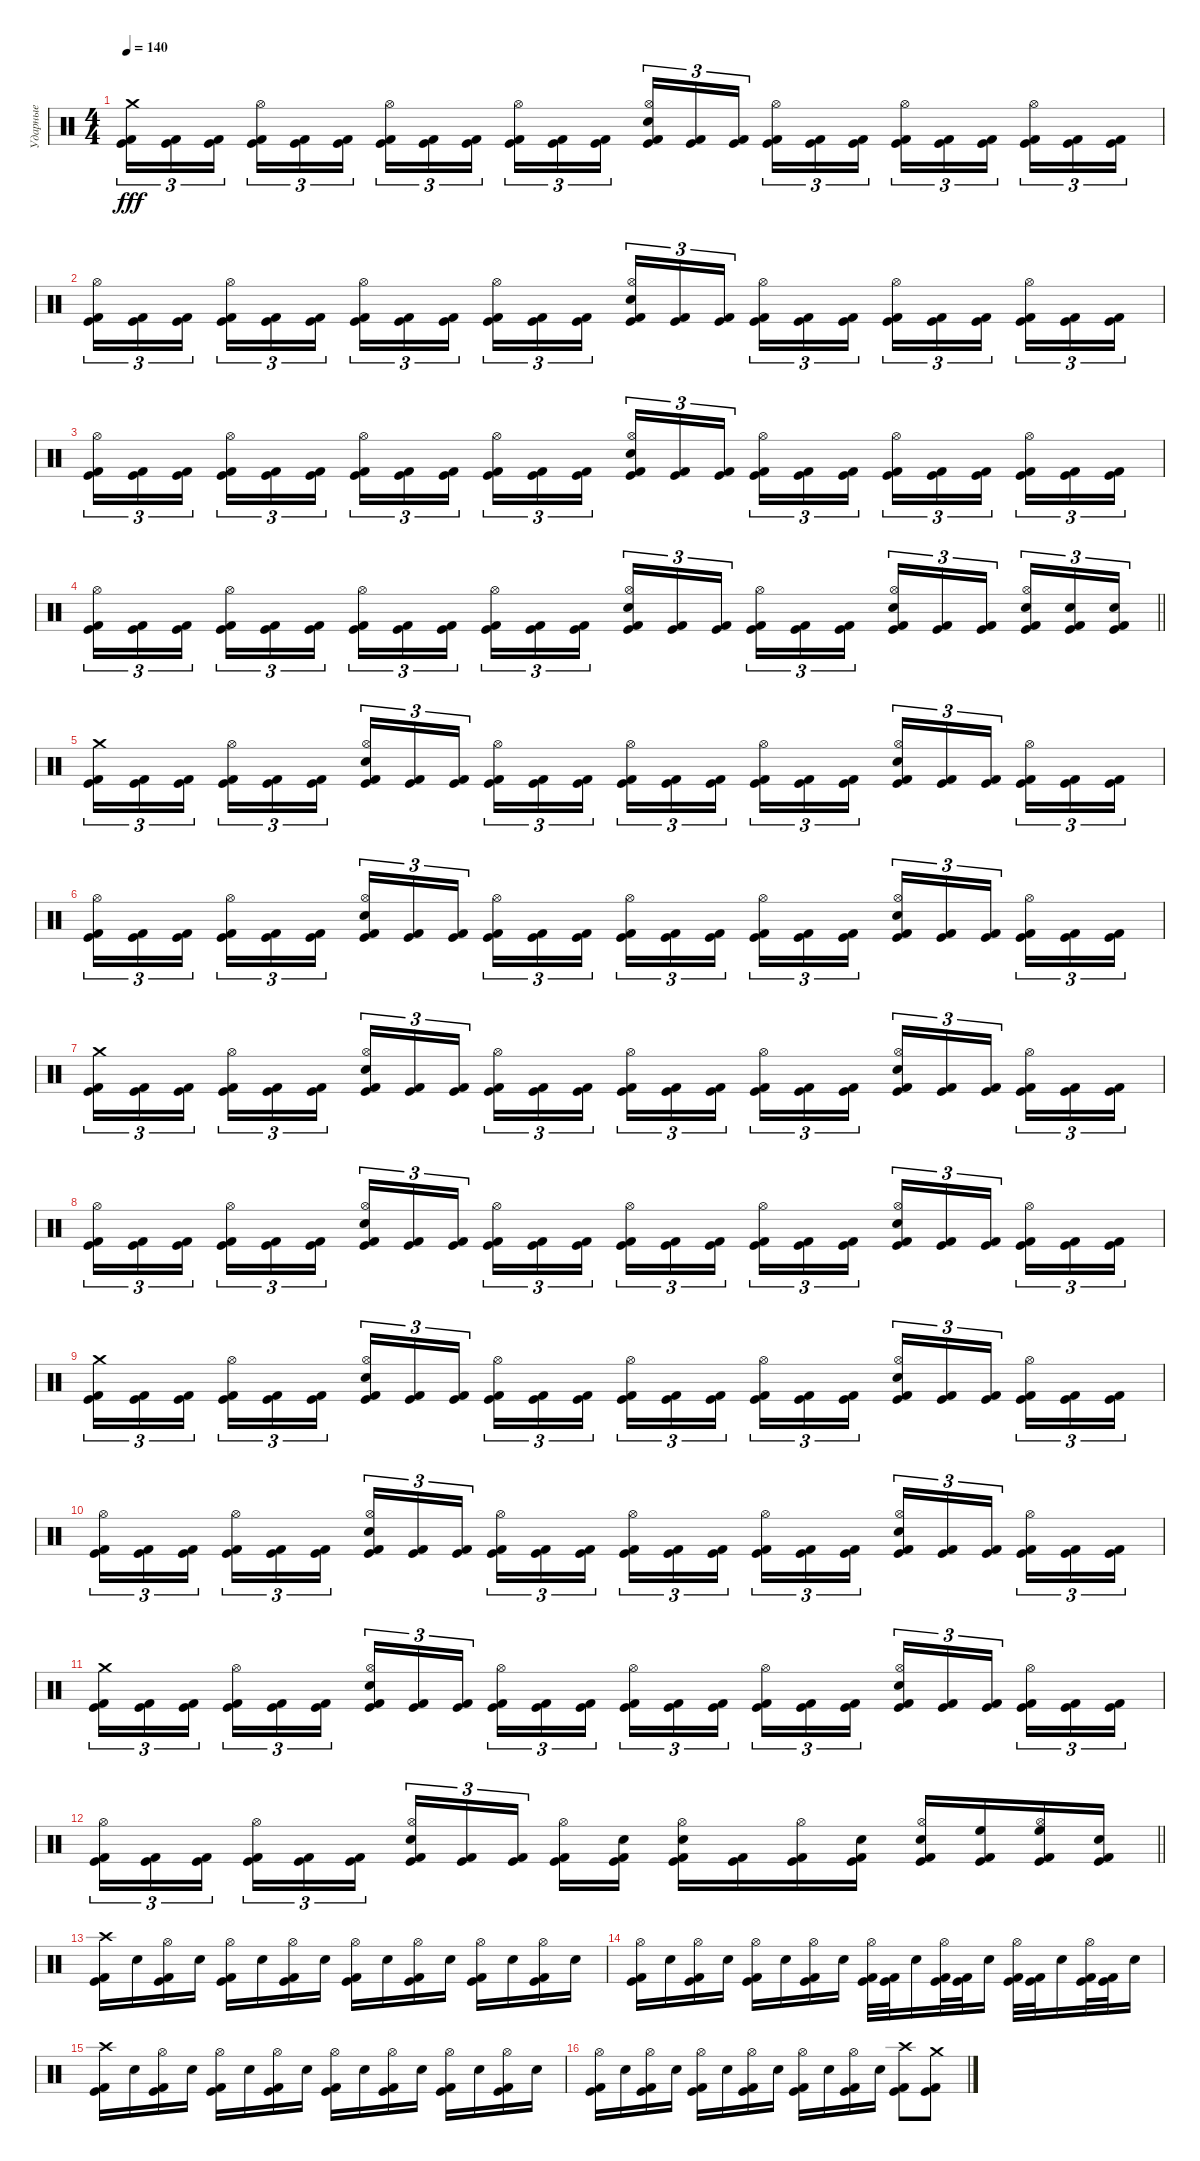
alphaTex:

\track ("Ударные" "Ударные") {instrument percussion}
\staff {score}
\articulation defaults
\ts (4 4)
\tempo 140
\clef neutral
\ks c
("Kick (hit)" "Kick (hit) 2" "Crash medium (hit)").16{tu (3 2) dy fff} ("Kick (hit)" "Kick (hit) 2").16{tu (3 2)} ("Kick (hit)" "Kick (hit) 2").16{tu (3 2) beam splitsecondary} ("Hi-Hat (open)" "Kick (hit)" "Kick (hit) 2").16{tu (3 2)} ("Kick (hit)" "Kick (hit) 2").16{tu (3 2)} ("Kick (hit)" "Kick (hit) 2").16{tu (3 2)} ("Hi-Hat (open)" "Kick (hit)" "Kick (hit) 2").16{tu (3 2)} ("Kick (hit)" "Kick (hit) 2").16{tu (3 2)} ("Kick (hit)" "Kick (hit) 2").16{tu (3 2) beam splitsecondary} ("Hi-Hat (open)" "Kick (hit)" "Kick (hit) 2").16{tu (3 2)} ("Kick (hit)" "Kick (hit) 2").16{tu (3 2)} ("Kick (hit)" "Kick (hit) 2").16{tu (3 2)} ("Hi-Hat (open)" "Kick (hit)" "Kick (hit) 2" "Electric Snare (hit)").16{tu (3 2)} ("Kick (hit)" "Kick (hit) 2").16{tu (3 2)} ("Kick (hit)" "Kick (hit) 2").16{tu (3 2) beam splitsecondary} ("Hi-Hat (open)" "Kick (hit)" "Kick (hit) 2").16{tu (3 2)} ("Kick (hit)" "Kick (hit) 2").16{tu (3 2)} ("Kick (hit)" "Kick (hit) 2").16{tu (3 2)} ("Hi-Hat (open)" "Kick (hit)" "Kick (hit) 2").16{tu (3 2)} ("Kick (hit)" "Kick (hit) 2").16{tu (3 2)} ("Kick (hit)" "Kick (hit) 2").16{tu (3 2) beam splitsecondary} ("Hi-Hat (open)" "Kick (hit)" "Kick (hit) 2").16{tu (3 2)} ("Kick (hit)" "Kick (hit) 2").16{tu (3 2)} ("Kick (hit)" "Kick (hit) 2").16{tu (3 2)} |
("Hi-Hat (open)" "Kick (hit)" "Kick (hit) 2").16{tu (3 2)} ("Kick (hit)" "Kick (hit) 2").16{tu (3 2)} ("Kick (hit)" "Kick (hit) 2").16{tu (3 2) beam splitsecondary} ("Hi-Hat (open)" "Kick (hit)" "Kick (hit) 2").16{tu (3 2)} ("Kick (hit)" "Kick (hit) 2").16{tu (3 2)} ("Kick (hit)" "Kick (hit) 2").16{tu (3 2)} ("Hi-Hat (open)" "Kick (hit)" "Kick (hit) 2").16{tu (3 2)} ("Kick (hit)" "Kick (hit) 2").16{tu (3 2)} ("Kick (hit)" "Kick (hit) 2").16{tu (3 2) beam splitsecondary} ("Hi-Hat (open)" "Kick (hit)" "Kick (hit) 2").16{tu (3 2)} ("Kick (hit)" "Kick (hit) 2").16{tu (3 2)} ("Kick (hit)" "Kick (hit) 2").16{tu (3 2)} ("Hi-Hat (open)" "Kick (hit)" "Kick (hit) 2" "Electric Snare (hit)").16{tu (3 2)} ("Kick (hit)" "Kick (hit) 2").16{tu (3 2)} ("Kick (hit)" "Kick (hit) 2").16{tu (3 2) beam splitsecondary} ("Hi-Hat (open)" "Kick (hit)" "Kick (hit) 2").16{tu (3 2)} ("Kick (hit)" "Kick (hit) 2").16{tu (3 2)} ("Kick (hit)" "Kick (hit) 2").16{tu (3 2)} ("Hi-Hat (open)" "Kick (hit)" "Kick (hit) 2").16{tu (3 2)} ("Kick (hit)" "Kick (hit) 2").16{tu (3 2)} ("Kick (hit)" "Kick (hit) 2").16{tu (3 2) beam splitsecondary} ("Hi-Hat (open)" "Kick (hit)" "Kick (hit) 2").16{tu (3 2)} ("Kick (hit)" "Kick (hit) 2").16{tu (3 2)} ("Kick (hit)" "Kick (hit) 2").16{tu (3 2)} |
("Hi-Hat (open)" "Kick (hit)" "Kick (hit) 2").16{tu (3 2)} ("Kick (hit)" "Kick (hit) 2").16{tu (3 2)} ("Kick (hit)" "Kick (hit) 2").16{tu (3 2) beam splitsecondary} ("Hi-Hat (open)" "Kick (hit)" "Kick (hit) 2").16{tu (3 2)} ("Kick (hit)" "Kick (hit) 2").16{tu (3 2)} ("Kick (hit)" "Kick (hit) 2").16{tu (3 2)} ("Hi-Hat (open)" "Kick (hit)" "Kick (hit) 2").16{tu (3 2)} ("Kick (hit)" "Kick (hit) 2").16{tu (3 2)} ("Kick (hit)" "Kick (hit) 2").16{tu (3 2) beam splitsecondary} ("Hi-Hat (open)" "Kick (hit)" "Kick (hit) 2").16{tu (3 2)} ("Kick (hit)" "Kick (hit) 2").16{tu (3 2)} ("Kick (hit)" "Kick (hit) 2").16{tu (3 2)} ("Hi-Hat (open)" "Kick (hit)" "Kick (hit) 2" "Electric Snare (hit)").16{tu (3 2)} ("Kick (hit)" "Kick (hit) 2").16{tu (3 2)} ("Kick (hit)" "Kick (hit) 2").16{tu (3 2) beam splitsecondary} ("Hi-Hat (open)" "Kick (hit)" "Kick (hit) 2").16{tu (3 2)} ("Kick (hit)" "Kick (hit) 2").16{tu (3 2)} ("Kick (hit)" "Kick (hit) 2").16{tu (3 2)} ("Hi-Hat (open)" "Kick (hit)" "Kick (hit) 2").16{tu (3 2)} ("Kick (hit)" "Kick (hit) 2").16{tu (3 2)} ("Kick (hit)" "Kick (hit) 2").16{tu (3 2) beam splitsecondary} ("Hi-Hat (open)" "Kick (hit)" "Kick (hit) 2").16{tu (3 2)} ("Kick (hit)" "Kick (hit) 2").16{tu (3 2)} ("Kick (hit)" "Kick (hit) 2").16{tu (3 2)} |
\barLineRight lightlight
("Hi-Hat (open)" "Kick (hit)" "Kick (hit) 2").16{tu (3 2)} ("Kick (hit)" "Kick (hit) 2").16{tu (3 2)} ("Kick (hit)" "Kick (hit) 2").16{tu (3 2) beam splitsecondary} ("Hi-Hat (open)" "Kick (hit)" "Kick (hit) 2").16{tu (3 2)} ("Kick (hit)" "Kick (hit) 2").16{tu (3 2)} ("Kick (hit)" "Kick (hit) 2").16{tu (3 2)} ("Hi-Hat (open)" "Kick (hit)" "Kick (hit) 2").16{tu (3 2)} ("Kick (hit)" "Kick (hit) 2").16{tu (3 2)} ("Kick (hit)" "Kick (hit) 2").16{tu (3 2) beam splitsecondary} ("Hi-Hat (open)" "Kick (hit)" "Kick (hit) 2").16{tu (3 2)} ("Kick (hit)" "Kick (hit) 2").16{tu (3 2)} ("Kick (hit)" "Kick (hit) 2").16{tu (3 2)} ("Hi-Hat (open)" "Kick (hit)" "Kick (hit) 2" "Electric Snare (hit)").16{tu (3 2)} ("Kick (hit)" "Kick (hit) 2").16{tu (3 2)} ("Kick (hit)" "Kick (hit) 2").16{tu (3 2) beam splitsecondary} ("Hi-Hat (open)" "Kick (hit)" "Kick (hit) 2").16{tu (3 2)} ("Kick (hit)" "Kick (hit) 2").16{tu (3 2)} ("Kick (hit)" "Kick (hit) 2").16{tu (3 2)} ("Hi-Hat (open)" "Kick (hit)" "Kick (hit) 2" "Electric Snare (hit)").16{tu (3 2)} ("Kick (hit)" "Kick (hit) 2").16{tu (3 2)} ("Kick (hit)" "Kick (hit) 2").16{tu (3 2) beam splitsecondary} ("Hi-Hat (open)" "Kick (hit)" "Kick (hit) 2" "Electric Snare (hit)").16{tu (3 2)} ("Kick (hit)" "Kick (hit) 2" "Electric Snare (hit)").16{tu (3 2)} ("Kick (hit)" "Kick (hit) 2" "Electric Snare (hit)").16{tu (3 2)} |
("Kick (hit)" "Kick (hit) 2" "Crash medium (hit)").16{tu (3 2)} ("Kick (hit)" "Kick (hit) 2").16{tu (3 2)} ("Kick (hit)" "Kick (hit) 2").16{tu (3 2) beam splitsecondary} ("Hi-Hat (open)" "Kick (hit)" "Kick (hit) 2").16{tu (3 2)} ("Kick (hit)" "Kick (hit) 2").16{tu (3 2)} ("Kick (hit)" "Kick (hit) 2").16{tu (3 2)} ("Hi-Hat (open)" "Kick (hit)" "Kick (hit) 2" "Electric Snare (hit)").16{tu (3 2)} ("Kick (hit)" "Kick (hit) 2").16{tu (3 2)} ("Kick (hit)" "Kick (hit) 2").16{tu (3 2) beam splitsecondary} ("Hi-Hat (open)" "Kick (hit)" "Kick (hit) 2").16{tu (3 2)} ("Kick (hit)" "Kick (hit) 2").16{tu (3 2)} ("Kick (hit)" "Kick (hit) 2").16{tu (3 2)} ("Hi-Hat (open)" "Kick (hit)" "Kick (hit) 2").16{tu (3 2)} ("Kick (hit)" "Kick (hit) 2").16{tu (3 2)} ("Kick (hit)" "Kick (hit) 2").16{tu (3 2) beam splitsecondary} ("Hi-Hat (open)" "Kick (hit)" "Kick (hit) 2").16{tu (3 2)} ("Kick (hit)" "Kick (hit) 2").16{tu (3 2)} ("Kick (hit)" "Kick (hit) 2").16{tu (3 2)} ("Hi-Hat (open)" "Kick (hit)" "Kick (hit) 2" "Electric Snare (hit)").16{tu (3 2)} ("Kick (hit)" "Kick (hit) 2").16{tu (3 2)} ("Kick (hit)" "Kick (hit) 2").16{tu (3 2) beam splitsecondary} ("Hi-Hat (open)" "Kick (hit)" "Kick (hit) 2").16{tu (3 2)} ("Kick (hit)" "Kick (hit) 2").16{tu (3 2)} ("Kick (hit)" "Kick (hit) 2").16{tu (3 2)} |
("Hi-Hat (open)" "Kick (hit)" "Kick (hit) 2").16{tu (3 2)} ("Kick (hit)" "Kick (hit) 2").16{tu (3 2)} ("Kick (hit)" "Kick (hit) 2").16{tu (3 2) beam splitsecondary} ("Hi-Hat (open)" "Kick (hit)" "Kick (hit) 2").16{tu (3 2)} ("Kick (hit)" "Kick (hit) 2").16{tu (3 2)} ("Kick (hit)" "Kick (hit) 2").16{tu (3 2)} ("Hi-Hat (open)" "Kick (hit)" "Kick (hit) 2" "Electric Snare (hit)").16{tu (3 2)} ("Kick (hit)" "Kick (hit) 2").16{tu (3 2)} ("Kick (hit)" "Kick (hit) 2").16{tu (3 2) beam splitsecondary} ("Hi-Hat (open)" "Kick (hit)" "Kick (hit) 2").16{tu (3 2)} ("Kick (hit)" "Kick (hit) 2").16{tu (3 2)} ("Kick (hit)" "Kick (hit) 2").16{tu (3 2)} ("Hi-Hat (open)" "Kick (hit)" "Kick (hit) 2").16{tu (3 2)} ("Kick (hit)" "Kick (hit) 2").16{tu (3 2)} ("Kick (hit)" "Kick (hit) 2").16{tu (3 2) beam splitsecondary} ("Hi-Hat (open)" "Kick (hit)" "Kick (hit) 2").16{tu (3 2)} ("Kick (hit)" "Kick (hit) 2").16{tu (3 2)} ("Kick (hit)" "Kick (hit) 2").16{tu (3 2)} ("Hi-Hat (open)" "Kick (hit)" "Kick (hit) 2" "Electric Snare (hit)").16{tu (3 2)} ("Kick (hit)" "Kick (hit) 2").16{tu (3 2)} ("Kick (hit)" "Kick (hit) 2").16{tu (3 2) beam splitsecondary} ("Hi-Hat (open)" "Kick (hit)" "Kick (hit) 2").16{tu (3 2)} ("Kick (hit)" "Kick (hit) 2").16{tu (3 2)} ("Kick (hit)" "Kick (hit) 2").16{tu (3 2)} |
("Kick (hit)" "Kick (hit) 2" "Crash medium (hit)").16{tu (3 2)} ("Kick (hit)" "Kick (hit) 2").16{tu (3 2)} ("Kick (hit)" "Kick (hit) 2").16{tu (3 2) beam splitsecondary} ("Hi-Hat (open)" "Kick (hit)" "Kick (hit) 2").16{tu (3 2)} ("Kick (hit)" "Kick (hit) 2").16{tu (3 2)} ("Kick (hit)" "Kick (hit) 2").16{tu (3 2)} ("Hi-Hat (open)" "Kick (hit)" "Kick (hit) 2" "Electric Snare (hit)").16{tu (3 2)} ("Kick (hit)" "Kick (hit) 2").16{tu (3 2)} ("Kick (hit)" "Kick (hit) 2").16{tu (3 2) beam splitsecondary} ("Hi-Hat (open)" "Kick (hit)" "Kick (hit) 2").16{tu (3 2)} ("Kick (hit)" "Kick (hit) 2").16{tu (3 2)} ("Kick (hit)" "Kick (hit) 2").16{tu (3 2)} ("Hi-Hat (open)" "Kick (hit)" "Kick (hit) 2").16{tu (3 2)} ("Kick (hit)" "Kick (hit) 2").16{tu (3 2)} ("Kick (hit)" "Kick (hit) 2").16{tu (3 2) beam splitsecondary} ("Hi-Hat (open)" "Kick (hit)" "Kick (hit) 2").16{tu (3 2)} ("Kick (hit)" "Kick (hit) 2").16{tu (3 2)} ("Kick (hit)" "Kick (hit) 2").16{tu (3 2)} ("Hi-Hat (open)" "Kick (hit)" "Kick (hit) 2" "Electric Snare (hit)").16{tu (3 2)} ("Kick (hit)" "Kick (hit) 2").16{tu (3 2)} ("Kick (hit)" "Kick (hit) 2").16{tu (3 2) beam splitsecondary} ("Hi-Hat (open)" "Kick (hit)" "Kick (hit) 2").16{tu (3 2)} ("Kick (hit)" "Kick (hit) 2").16{tu (3 2)} ("Kick (hit)" "Kick (hit) 2").16{tu (3 2)} |
("Hi-Hat (open)" "Kick (hit)" "Kick (hit) 2").16{tu (3 2)} ("Kick (hit)" "Kick (hit) 2").16{tu (3 2)} ("Kick (hit)" "Kick (hit) 2").16{tu (3 2) beam splitsecondary} ("Hi-Hat (open)" "Kick (hit)" "Kick (hit) 2").16{tu (3 2)} ("Kick (hit)" "Kick (hit) 2").16{tu (3 2)} ("Kick (hit)" "Kick (hit) 2").16{tu (3 2)} ("Hi-Hat (open)" "Kick (hit)" "Kick (hit) 2" "Electric Snare (hit)").16{tu (3 2)} ("Kick (hit)" "Kick (hit) 2").16{tu (3 2)} ("Kick (hit)" "Kick (hit) 2").16{tu (3 2) beam splitsecondary} ("Hi-Hat (open)" "Kick (hit)" "Kick (hit) 2").16{tu (3 2)} ("Kick (hit)" "Kick (hit) 2").16{tu (3 2)} ("Kick (hit)" "Kick (hit) 2").16{tu (3 2)} ("Hi-Hat (open)" "Kick (hit)" "Kick (hit) 2").16{tu (3 2)} ("Kick (hit)" "Kick (hit) 2").16{tu (3 2)} ("Kick (hit)" "Kick (hit) 2").16{tu (3 2) beam splitsecondary} ("Hi-Hat (open)" "Kick (hit)" "Kick (hit) 2").16{tu (3 2)} ("Kick (hit)" "Kick (hit) 2").16{tu (3 2)} ("Kick (hit)" "Kick (hit) 2").16{tu (3 2)} ("Hi-Hat (open)" "Kick (hit)" "Kick (hit) 2" "Electric Snare (hit)").16{tu (3 2)} ("Kick (hit)" "Kick (hit) 2").16{tu (3 2)} ("Kick (hit)" "Kick (hit) 2").16{tu (3 2) beam splitsecondary} ("Hi-Hat (open)" "Kick (hit)" "Kick (hit) 2").16{tu (3 2)} ("Kick (hit)" "Kick (hit) 2").16{tu (3 2)} ("Kick (hit)" "Kick (hit) 2").16{tu (3 2)} |
("Kick (hit)" "Kick (hit) 2" "Crash medium (hit)").16{tu (3 2)} ("Kick (hit)" "Kick (hit) 2").16{tu (3 2)} ("Kick (hit)" "Kick (hit) 2").16{tu (3 2) beam splitsecondary} ("Hi-Hat (open)" "Kick (hit)" "Kick (hit) 2").16{tu (3 2)} ("Kick (hit)" "Kick (hit) 2").16{tu (3 2)} ("Kick (hit)" "Kick (hit) 2").16{tu (3 2)} ("Hi-Hat (open)" "Kick (hit)" "Kick (hit) 2" "Electric Snare (hit)").16{tu (3 2)} ("Kick (hit)" "Kick (hit) 2").16{tu (3 2)} ("Kick (hit)" "Kick (hit) 2").16{tu (3 2) beam splitsecondary} ("Hi-Hat (open)" "Kick (hit)" "Kick (hit) 2").16{tu (3 2)} ("Kick (hit)" "Kick (hit) 2").16{tu (3 2)} ("Kick (hit)" "Kick (hit) 2").16{tu (3 2)} ("Hi-Hat (open)" "Kick (hit)" "Kick (hit) 2").16{tu (3 2)} ("Kick (hit)" "Kick (hit) 2").16{tu (3 2)} ("Kick (hit)" "Kick (hit) 2").16{tu (3 2) beam splitsecondary} ("Hi-Hat (open)" "Kick (hit)" "Kick (hit) 2").16{tu (3 2)} ("Kick (hit)" "Kick (hit) 2").16{tu (3 2)} ("Kick (hit)" "Kick (hit) 2").16{tu (3 2)} ("Hi-Hat (open)" "Kick (hit)" "Kick (hit) 2" "Electric Snare (hit)").16{tu (3 2)} ("Kick (hit)" "Kick (hit) 2").16{tu (3 2)} ("Kick (hit)" "Kick (hit) 2").16{tu (3 2) beam splitsecondary} ("Hi-Hat (open)" "Kick (hit)" "Kick (hit) 2").16{tu (3 2)} ("Kick (hit)" "Kick (hit) 2").16{tu (3 2)} ("Kick (hit)" "Kick (hit) 2").16{tu (3 2)} |
("Hi-Hat (open)" "Kick (hit)" "Kick (hit) 2").16{tu (3 2)} ("Kick (hit)" "Kick (hit) 2").16{tu (3 2)} ("Kick (hit)" "Kick (hit) 2").16{tu (3 2) beam splitsecondary} ("Hi-Hat (open)" "Kick (hit)" "Kick (hit) 2").16{tu (3 2)} ("Kick (hit)" "Kick (hit) 2").16{tu (3 2)} ("Kick (hit)" "Kick (hit) 2").16{tu (3 2)} ("Hi-Hat (open)" "Kick (hit)" "Kick (hit) 2" "Electric Snare (hit)").16{tu (3 2)} ("Kick (hit)" "Kick (hit) 2").16{tu (3 2)} ("Kick (hit)" "Kick (hit) 2").16{tu (3 2) beam splitsecondary} ("Hi-Hat (open)" "Kick (hit)" "Kick (hit) 2").16{tu (3 2)} ("Kick (hit)" "Kick (hit) 2").16{tu (3 2)} ("Kick (hit)" "Kick (hit) 2").16{tu (3 2)} ("Hi-Hat (open)" "Kick (hit)" "Kick (hit) 2").16{tu (3 2)} ("Kick (hit)" "Kick (hit) 2").16{tu (3 2)} ("Kick (hit)" "Kick (hit) 2").16{tu (3 2) beam splitsecondary} ("Hi-Hat (open)" "Kick (hit)" "Kick (hit) 2").16{tu (3 2)} ("Kick (hit)" "Kick (hit) 2").16{tu (3 2)} ("Kick (hit)" "Kick (hit) 2").16{tu (3 2)} ("Hi-Hat (open)" "Kick (hit)" "Kick (hit) 2" "Electric Snare (hit)").16{tu (3 2)} ("Kick (hit)" "Kick (hit) 2").16{tu (3 2)} ("Kick (hit)" "Kick (hit) 2").16{tu (3 2) beam splitsecondary} ("Hi-Hat (open)" "Kick (hit)" "Kick (hit) 2").16{tu (3 2)} ("Kick (hit)" "Kick (hit) 2").16{tu (3 2)} ("Kick (hit)" "Kick (hit) 2").16{tu (3 2)} |
("Kick (hit)" "Kick (hit) 2" "Crash medium (hit)").16{tu (3 2)} ("Kick (hit)" "Kick (hit) 2").16{tu (3 2)} ("Kick (hit)" "Kick (hit) 2").16{tu (3 2) beam splitsecondary} ("Hi-Hat (open)" "Kick (hit)" "Kick (hit) 2").16{tu (3 2)} ("Kick (hit)" "Kick (hit) 2").16{tu (3 2)} ("Kick (hit)" "Kick (hit) 2").16{tu (3 2)} ("Hi-Hat (open)" "Kick (hit)" "Kick (hit) 2" "Electric Snare (hit)").16{tu (3 2)} ("Kick (hit)" "Kick (hit) 2").16{tu (3 2)} ("Kick (hit)" "Kick (hit) 2").16{tu (3 2) beam splitsecondary} ("Hi-Hat (open)" "Kick (hit)" "Kick (hit) 2").16{tu (3 2)} ("Kick (hit)" "Kick (hit) 2").16{tu (3 2)} ("Kick (hit)" "Kick (hit) 2").16{tu (3 2)} ("Hi-Hat (open)" "Kick (hit)" "Kick (hit) 2").16{tu (3 2)} ("Kick (hit)" "Kick (hit) 2").16{tu (3 2)} ("Kick (hit)" "Kick (hit) 2").16{tu (3 2) beam splitsecondary} ("Hi-Hat (open)" "Kick (hit)" "Kick (hit) 2").16{tu (3 2)} ("Kick (hit)" "Kick (hit) 2").16{tu (3 2)} ("Kick (hit)" "Kick (hit) 2").16{tu (3 2)} ("Hi-Hat (open)" "Kick (hit)" "Kick (hit) 2" "Electric Snare (hit)").16{tu (3 2)} ("Kick (hit)" "Kick (hit) 2").16{tu (3 2)} ("Kick (hit)" "Kick (hit) 2").16{tu (3 2) beam splitsecondary} ("Hi-Hat (open)" "Kick (hit)" "Kick (hit) 2").16{tu (3 2)} ("Kick (hit)" "Kick (hit) 2").16{tu (3 2)} ("Kick (hit)" "Kick (hit) 2").16{tu (3 2)} |
\barLineRight lightlight
("Hi-Hat (open)" "Kick (hit)" "Kick (hit) 2").16{tu (3 2)} ("Kick (hit)" "Kick (hit) 2").16{tu (3 2)} ("Kick (hit)" "Kick (hit) 2").16{tu (3 2) beam splitsecondary} ("Hi-Hat (open)" "Kick (hit)" "Kick (hit) 2").16{tu (3 2)} ("Kick (hit)" "Kick (hit) 2").16{tu (3 2)} ("Kick (hit)" "Kick (hit) 2").16{tu (3 2)} ("Hi-Hat (open)" "Kick (hit)" "Kick (hit) 2" "Electric Snare (hit)").16{tu (3 2)} ("Kick (hit)" "Kick (hit) 2").16{tu (3 2)} ("Kick (hit)" "Kick (hit) 2").16{tu (3 2) beam splitsecondary} ("Hi-Hat (open)" "Kick (hit)" "Kick (hit) 2").16 ("Kick (hit)" "Kick (hit) 2" "Electric Snare (hit)").16 ("Hi-Hat (open)" "Kick (hit)" "Kick (hit) 2" "Electric Snare (hit)").16 ("Kick (hit)" "Kick (hit) 2").16 ("Hi-Hat (open)" "Kick (hit)" "Kick (hit) 2").16 ("Kick (hit)" "Kick (hit) 2" "Electric Snare (hit)").16 ("Hi-Hat (open)" "Kick (hit)" "Kick (hit) 2" "Electric Snare (hit)").16 ("Kick (hit)" "Kick (hit) 2" "High Floor Tom (hit)").16 ("Hi-Hat (open)" "Kick (hit)" "Kick (hit) 2" "High Floor Tom (hit)").16 ("Kick (hit)" "Kick (hit) 2" "Electric Snare (hit)").16 |
\section ("" "")
("Kick (hit)" "Kick (hit) 2" "Crash high (hit)").16 "Electric Snare (hit)".16 ("Kick (hit)" "Kick (hit) 2" "Hi-Hat (open)").16 "Electric Snare (hit)".16 ("Kick (hit)" "Kick (hit) 2" "Hi-Hat (open)").16 "Electric Snare (hit)".16 ("Kick (hit)" "Kick (hit) 2" "Hi-Hat (open)").16 "Electric Snare (hit)".16 ("Kick (hit)" "Kick (hit) 2" "Hi-Hat (open)").16 "Electric Snare (hit)".16 ("Kick (hit)" "Kick (hit) 2" "Hi-Hat (open)").16 "Electric Snare (hit)".16 ("Kick (hit)" "Kick (hit) 2" "Hi-Hat (open)").16 "Electric Snare (hit)".16 ("Kick (hit)" "Kick (hit) 2" "Hi-Hat (open)").16 "Electric Snare (hit)".16 |
("Kick (hit)" "Kick (hit) 2" "Hi-Hat (open)").16 "Electric Snare (hit)".16 ("Kick (hit)" "Kick (hit) 2" "Hi-Hat (open)").16 "Electric Snare (hit)".16 ("Kick (hit)" "Kick (hit) 2" "Hi-Hat (open)").16 "Electric Snare (hit)".16 ("Kick (hit)" "Kick (hit) 2" "Hi-Hat (open)").16 "Electric Snare (hit)".16 ("Kick (hit)" "Kick (hit) 2" "Hi-Hat (open)").32 ("Kick (hit)" "Kick (hit) 2").32 "Electric Snare (hit)".16 ("Kick (hit)" "Kick (hit) 2" "Hi-Hat (open)").32 ("Kick (hit)" "Kick (hit) 2").32 "Electric Snare (hit)".16 ("Kick (hit)" "Kick (hit) 2" "Hi-Hat (open)").32 ("Kick (hit)" "Kick (hit) 2").32 "Electric Snare (hit)".16 ("Kick (hit)" "Kick (hit) 2" "Hi-Hat (open)").32 ("Kick (hit)" "Kick (hit) 2").32 "Electric Snare (hit)".16 |
("Kick (hit)" "Kick (hit) 2" "Crash high (hit)").16 "Electric Snare (hit)".16 ("Kick (hit)" "Kick (hit) 2" "Hi-Hat (open)").16 "Electric Snare (hit)".16 ("Kick (hit)" "Kick (hit) 2" "Hi-Hat (open)").16 "Electric Snare (hit)".16 ("Kick (hit)" "Kick (hit) 2" "Hi-Hat (open)").16 "Electric Snare (hit)".16 ("Kick (hit)" "Kick (hit) 2" "Hi-Hat (open)").16 "Electric Snare (hit)".16 ("Kick (hit)" "Kick (hit) 2" "Hi-Hat (open)").16 "Electric Snare (hit)".16 ("Kick (hit)" "Kick (hit) 2" "Hi-Hat (open)").16 "Electric Snare (hit)".16 ("Kick (hit)" "Kick (hit) 2" "Hi-Hat (open)").16 "Electric Snare (hit)".16 |
("Kick (hit)" "Kick (hit) 2" "Hi-Hat (open)").16 "Electric Snare (hit)".16 ("Kick (hit)" "Kick (hit) 2" "Hi-Hat (open)").16 "Electric Snare (hit)".16 ("Kick (hit)" "Kick (hit) 2" "Hi-Hat (open)").16 "Electric Snare (hit)".16 ("Kick (hit)" "Kick (hit) 2" "Hi-Hat (open)").16 "Electric Snare (hit)".16 ("Kick (hit)" "Kick (hit) 2" "Hi-Hat (open)").16 "Electric Snare (hit)".16 ("Kick (hit)" "Kick (hit) 2" "Hi-Hat (open)").16 "Electric Snare (hit)".16 ("Kick (hit) 2" "Kick (hit)" "Crash high (hit)").8 ("Kick (hit) 2" "Kick (hit)" "Crash medium (hit)").8
